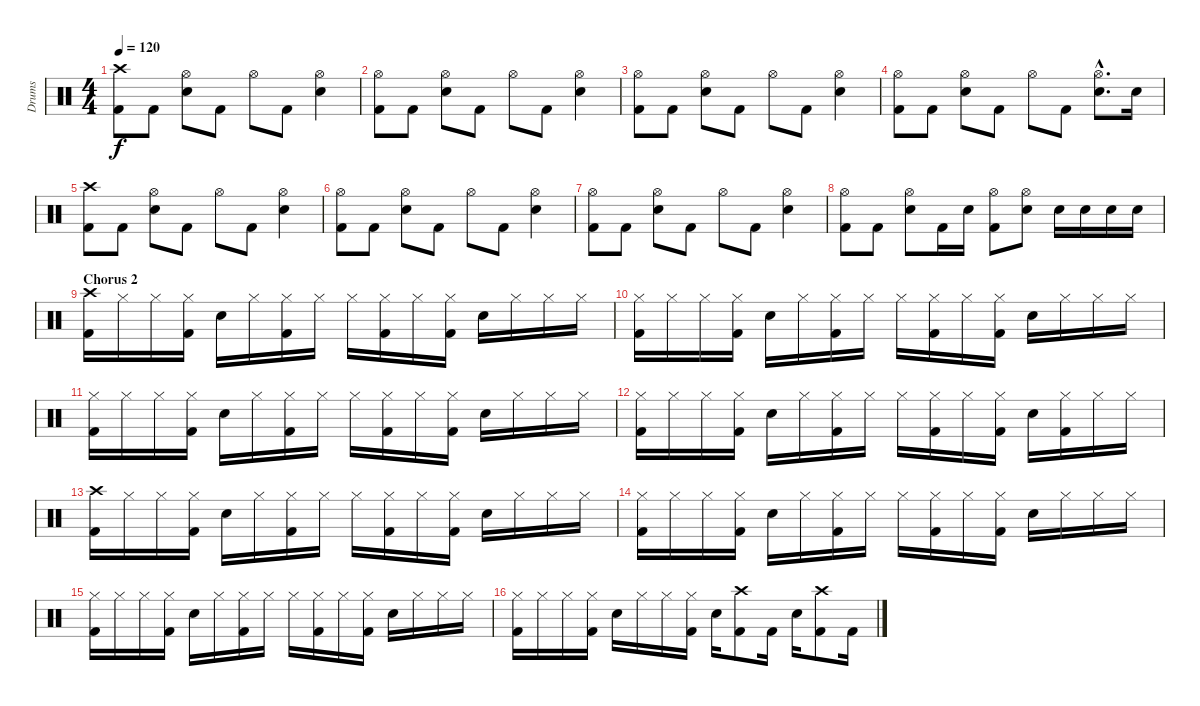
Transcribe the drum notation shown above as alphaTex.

\track ("Drums" "Drums") {instrument percussion}
\staff {score}
\articulation defaults
\ts (4 4)
\tempo 120
\clef neutral
\ks c
("Crash high (hit)" "Kick (hit) 2").8{dy f} "Kick (hit) 2".8 ("Hi-Hat (open)" "Electric Snare (hit)").8 "Kick (hit) 2".8 "Hi-Hat (open)".8 "Kick (hit) 2".8 ("Hi-Hat (open)" "Electric Snare (hit)").4 |
("Hi-Hat (open)" "Kick (hit) 2").8 "Kick (hit) 2".8 ("Hi-Hat (open)" "Electric Snare (hit)").8 "Kick (hit) 2".8 "Hi-Hat (open)".8 "Kick (hit) 2".8 ("Hi-Hat (open)" "Electric Snare (hit)").4 |
("Hi-Hat (open)" "Kick (hit) 2").8 "Kick (hit) 2".8 ("Hi-Hat (open)" "Electric Snare (hit)").8 "Kick (hit) 2".8 "Hi-Hat (open)".8 "Kick (hit) 2".8 ("Hi-Hat (open)" "Electric Snare (hit)").4 |
("Hi-Hat (open)" "Kick (hit) 2").8 "Kick (hit) 2".8 ("Hi-Hat (open)" "Electric Snare (hit)").8 "Kick (hit) 2".8 "Hi-Hat (open)".8 "Kick (hit) 2".8 ("Hi-Hat (open)"{hac} "Electric Snare (hit)"{hac}).8{d} "Electric Snare (hit)".16 |
("Crash high (hit)" "Kick (hit) 2").8 "Kick (hit) 2".8 ("Hi-Hat (open)" "Electric Snare (hit)").8 "Kick (hit) 2".8 "Hi-Hat (open)".8 "Kick (hit) 2".8 ("Hi-Hat (open)" "Electric Snare (hit)").4 |
("Hi-Hat (open)" "Kick (hit) 2").8 "Kick (hit) 2".8 ("Hi-Hat (open)" "Electric Snare (hit)").8 "Kick (hit) 2".8 "Hi-Hat (open)".8 "Kick (hit) 2".8 ("Hi-Hat (open)" "Electric Snare (hit)").4 |
("Hi-Hat (open)" "Kick (hit) 2").8 "Kick (hit) 2".8 ("Hi-Hat (open)" "Electric Snare (hit)").8 "Kick (hit) 2".8 "Hi-Hat (open)".8 "Kick (hit) 2".8 ("Hi-Hat (open)" "Electric Snare (hit)").4 |
("Hi-Hat (open)" "Kick (hit) 2").8 "Kick (hit) 2".8 ("Hi-Hat (open)" "Electric Snare (hit)").8 "Kick (hit) 2".16 "Electric Snare (hit)".16 ("Hi-Hat (open)" "Kick (hit) 2").8 ("Hi-Hat (open)" "Electric Snare (hit)").8 "Electric Snare (hit)".16 "Electric Snare (hit)".16 "Electric Snare (hit)".16 "Electric Snare (hit)".16 |
\section ("" "Chorus 2")
("Crash high (hit)" "Kick (hit) 2").16 "Hi-Hat (closed)".16 "Hi-Hat (closed)".16 ("Hi-Hat (closed)" "Kick (hit) 2").16 "Electric Snare (hit)".16 "Hi-Hat (closed)".16 ("Hi-Hat (closed)" "Kick (hit) 2").16 "Hi-Hat (closed)".16 "Hi-Hat (closed)".16 ("Hi-Hat (closed)" "Kick (hit) 2").16 "Hi-Hat (closed)".16 ("Hi-Hat (closed)" "Kick (hit) 2").16 "Electric Snare (hit)".16 "Hi-Hat (closed)".16 "Hi-Hat (closed)".16 "Hi-Hat (closed)".16 |
("Hi-Hat (closed)" "Kick (hit) 2").16 "Hi-Hat (closed)".16 "Hi-Hat (closed)".16 ("Hi-Hat (closed)" "Kick (hit) 2").16 "Electric Snare (hit)".16 "Hi-Hat (closed)".16 ("Hi-Hat (closed)" "Kick (hit) 2").16 "Hi-Hat (closed)".16 "Hi-Hat (closed)".16 ("Hi-Hat (closed)" "Kick (hit) 2").16 "Hi-Hat (closed)".16 ("Hi-Hat (closed)" "Kick (hit) 2").16 "Electric Snare (hit)".16 "Hi-Hat (closed)".16 "Hi-Hat (closed)".16 "Hi-Hat (closed)".16 |
("Hi-Hat (closed)" "Kick (hit) 2").16 "Hi-Hat (closed)".16 "Hi-Hat (closed)".16 ("Hi-Hat (closed)" "Kick (hit) 2").16 "Electric Snare (hit)".16 "Hi-Hat (closed)".16 ("Hi-Hat (closed)" "Kick (hit) 2").16 "Hi-Hat (closed)".16 "Hi-Hat (closed)".16 ("Hi-Hat (closed)" "Kick (hit) 2").16 "Hi-Hat (closed)".16 ("Hi-Hat (closed)" "Kick (hit) 2").16 "Electric Snare (hit)".16 "Hi-Hat (closed)".16 "Hi-Hat (closed)".16 "Hi-Hat (closed)".16 |
("Hi-Hat (closed)" "Kick (hit) 2").16 "Hi-Hat (closed)".16 "Hi-Hat (closed)".16 ("Hi-Hat (closed)" "Kick (hit) 2").16 "Electric Snare (hit)".16 "Hi-Hat (closed)".16 ("Hi-Hat (closed)" "Kick (hit) 2").16 "Hi-Hat (closed)".16 "Hi-Hat (closed)".16 ("Hi-Hat (closed)" "Kick (hit) 2").16 "Hi-Hat (closed)".16 ("Hi-Hat (closed)" "Kick (hit) 2").16 "Electric Snare (hit)".16 ("Hi-Hat (closed)" "Kick (hit) 2").16 "Hi-Hat (closed)".16 "Hi-Hat (closed)".16 |
("Crash high (hit)" "Kick (hit) 2").16 "Hi-Hat (closed)".16 "Hi-Hat (closed)".16 ("Hi-Hat (closed)" "Kick (hit) 2").16 "Electric Snare (hit)".16 "Hi-Hat (closed)".16 ("Hi-Hat (closed)" "Kick (hit) 2").16 "Hi-Hat (closed)".16 "Hi-Hat (closed)".16 ("Hi-Hat (closed)" "Kick (hit) 2").16 "Hi-Hat (closed)".16 ("Hi-Hat (closed)" "Kick (hit) 2").16 "Electric Snare (hit)".16 "Hi-Hat (closed)".16 "Hi-Hat (closed)".16 "Hi-Hat (closed)".16 |
("Hi-Hat (closed)" "Kick (hit) 2").16 "Hi-Hat (closed)".16 "Hi-Hat (closed)".16 ("Hi-Hat (closed)" "Kick (hit) 2").16 "Electric Snare (hit)".16 "Hi-Hat (closed)".16 ("Hi-Hat (closed)" "Kick (hit) 2").16 "Hi-Hat (closed)".16 "Hi-Hat (closed)".16 ("Hi-Hat (closed)" "Kick (hit) 2").16 "Hi-Hat (closed)".16 ("Hi-Hat (closed)" "Kick (hit) 2").16 "Electric Snare (hit)".16 "Hi-Hat (closed)".16 "Hi-Hat (closed)".16 "Hi-Hat (closed)".16 |
("Hi-Hat (closed)" "Kick (hit) 2").16 "Hi-Hat (closed)".16 "Hi-Hat (closed)".16 ("Hi-Hat (closed)" "Kick (hit) 2").16 "Electric Snare (hit)".16 "Hi-Hat (closed)".16 ("Hi-Hat (closed)" "Kick (hit) 2").16 "Hi-Hat (closed)".16 "Hi-Hat (closed)".16 ("Hi-Hat (closed)" "Kick (hit) 2").16 "Hi-Hat (closed)".16 ("Hi-Hat (closed)" "Kick (hit) 2").16 "Electric Snare (hit)".16 "Hi-Hat (closed)".16 "Hi-Hat (closed)".16 "Hi-Hat (closed)".16 |
("Hi-Hat (closed)" "Kick (hit) 2").16 "Hi-Hat (closed)".16 "Hi-Hat (closed)".16 ("Hi-Hat (closed)" "Kick (hit) 2").16 "Electric Snare (hit)".16 "Hi-Hat (closed)".16 "Hi-Hat (closed)".16 ("Hi-Hat (closed)" "Kick (hit) 2").16 "Electric Snare (hit)".16 ("Crash high (hit)" "Kick (hit) 2").8 "Kick (hit) 2".16 "Electric Snare (hit)".16 ("Crash high (hit)" "Kick (hit) 2").8 "Kick (hit) 2".16
